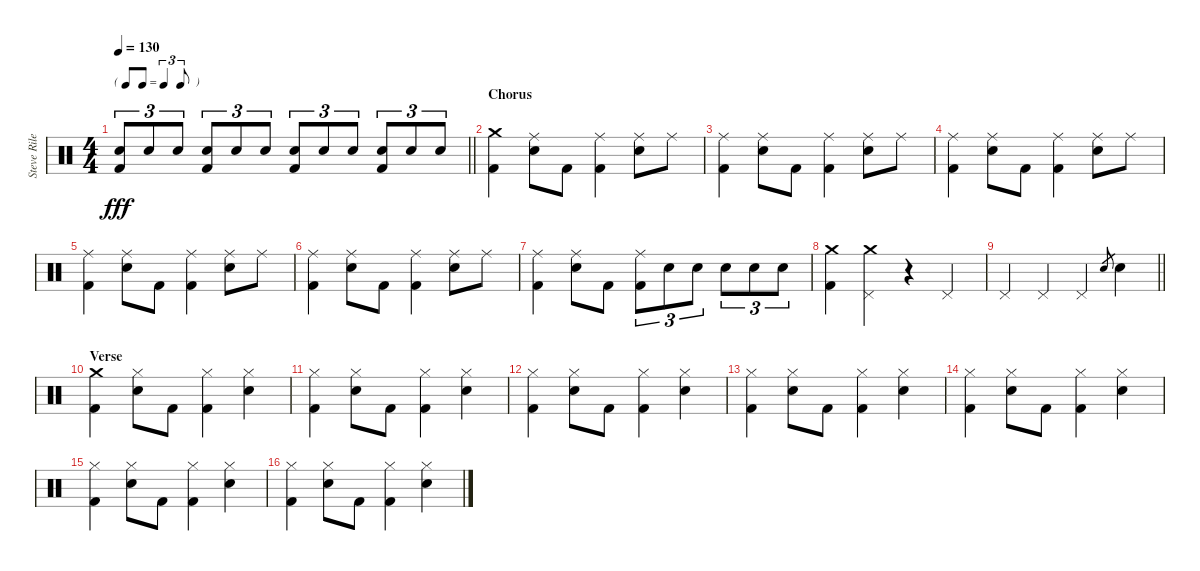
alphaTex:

\track ("Steve Riley - Drums" "Steve Rile") {instrument percussion}
\staff {score}
\articulation defaults
\ts (4 4)
\tf triplet8th
\tempo 130
\clef neutral
\barLineRight lightlight
\ks c
("Electric Snare (hit)" "Kick (hit) 2").8{tu (3 2) dy fff} "Electric Snare (hit)".8{tu (3 2)} "Electric Snare (hit)".8{tu (3 2)} ("Electric Snare (hit)" "Kick (hit) 2").8{tu (3 2)} "Electric Snare (hit)".8{tu (3 2)} "Electric Snare (hit)".8{tu (3 2)} ("Electric Snare (hit)" "Kick (hit) 2").8{tu (3 2)} "Electric Snare (hit)".8{tu (3 2)} "Electric Snare (hit)".8{tu (3 2)} ("Electric Snare (hit)" "Kick (hit) 2").8{tu (3 2)} "Electric Snare (hit)".8{tu (3 2)} "Electric Snare (hit)".8{tu (3 2)} |
\section ("" "Chorus")
("Crash medium (hit)" "Kick (hit) 2").4 ("Ride (middle)" "Electric Snare (hit)").8 "Kick (hit) 2".8 ("Ride (middle)" "Kick (hit) 2").4 ("Ride (middle)" "Electric Snare (hit)").8 "Ride (middle)".8 |
("Ride (middle)" "Kick (hit) 2").4 ("Ride (middle)" "Electric Snare (hit)").8 "Kick (hit) 2".8 ("Ride (middle)" "Kick (hit) 2").4 ("Ride (middle)" "Electric Snare (hit)").8 "Ride (middle)".8 |
("Ride (middle)" "Kick (hit) 2").4 ("Ride (middle)" "Electric Snare (hit)").8 "Kick (hit) 2".8 ("Ride (middle)" "Kick (hit) 2").4 ("Ride (middle)" "Electric Snare (hit)").8 "Ride (middle)".8 |
("Ride (middle)" "Kick (hit) 2").4 ("Ride (middle)" "Electric Snare (hit)").8 "Kick (hit) 2".8 ("Ride (middle)" "Kick (hit) 2").4 ("Ride (middle)" "Electric Snare (hit)").8 "Ride (middle)".8 |
("Ride (middle)" "Kick (hit) 2").4 ("Ride (middle)" "Electric Snare (hit)").8 "Kick (hit) 2".8 ("Ride (middle)" "Kick (hit) 2").4 ("Ride (middle)" "Electric Snare (hit)").8 "Ride (middle)".8 |
("Ride (middle)" "Kick (hit) 2").4 ("Ride (middle)" "Electric Snare (hit)").8 "Kick (hit) 2".8 ("Ride (middle)" "Kick (hit) 2").8{tu (3 2)} "Electric Snare (hit)".8{tu (3 2)} "Electric Snare (hit)".8{tu (3 2)} "Electric Snare (hit)".8{tu (3 2)} "Electric Snare (hit)".8{tu (3 2)} "Electric Snare (hit)".8{tu (3 2)} |
("Crash medium (hit)" "Kick (hit) 2").4 ("Crash medium (hit)" "Pedal Hi-Hat (hit)").4 r.4 "Pedal Hi-Hat (hit)".4 |
\barLineRight lightlight "Pedal Hi-Hat (hit)".4 "Pedal Hi-Hat (hit)".4 "Pedal Hi-Hat (hit)".4 "Electric Snare (hit)".8{gr} "Electric Snare (hit)".4
|
\section ("" "Verse")
("Crash medium (hit)" "Kick (hit) 2").4 ("Hi-Hat (closed)" "Electric Snare (hit)").8 "Kick (hit) 2".8 ("Hi-Hat (closed)" "Kick (hit) 2").4 ("Hi-Hat (closed)" "Electric Snare (hit)").4 |
("Hi-Hat (closed)" "Kick (hit) 2").4 ("Hi-Hat (closed)" "Electric Snare (hit)").8 "Kick (hit) 2".8 ("Hi-Hat (closed)" "Kick (hit) 2").4 ("Hi-Hat (closed)" "Electric Snare (hit)").4 |
("Hi-Hat (closed)" "Kick (hit) 2").4 ("Hi-Hat (closed)" "Electric Snare (hit)").8 "Kick (hit) 2".8 ("Hi-Hat (closed)" "Kick (hit) 2").4 ("Hi-Hat (closed)" "Electric Snare (hit)").4 |
("Hi-Hat (closed)" "Kick (hit) 2").4 ("Hi-Hat (closed)" "Electric Snare (hit)").8 "Kick (hit) 2".8 ("Hi-Hat (closed)" "Kick (hit) 2").4 ("Hi-Hat (closed)" "Electric Snare (hit)").4 |
("Hi-Hat (closed)" "Kick (hit) 2").4 ("Hi-Hat (closed)" "Electric Snare (hit)").8 "Kick (hit) 2".8 ("Hi-Hat (closed)" "Kick (hit) 2").4 ("Hi-Hat (closed)" "Electric Snare (hit)").4 |
("Hi-Hat (closed)" "Kick (hit) 2").4 ("Hi-Hat (closed)" "Electric Snare (hit)").8 "Kick (hit) 2".8 ("Hi-Hat (closed)" "Kick (hit) 2").4 ("Hi-Hat (closed)" "Electric Snare (hit)").4 |
("Hi-Hat (closed)" "Kick (hit) 2").4 ("Hi-Hat (closed)" "Electric Snare (hit)").8 "Kick (hit) 2".8 ("Hi-Hat (closed)" "Kick (hit) 2").4 ("Hi-Hat (closed)" "Electric Snare (hit)").4
